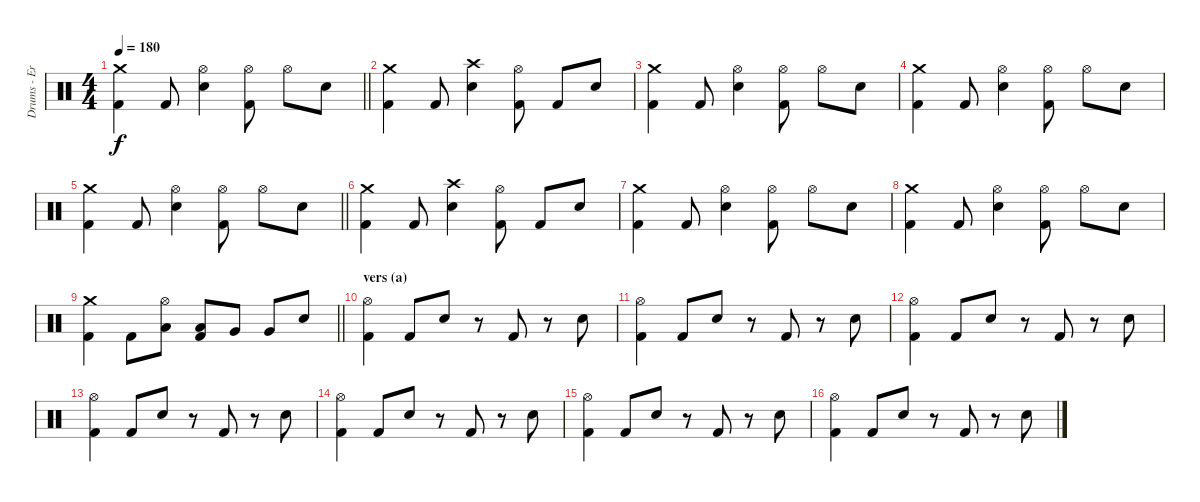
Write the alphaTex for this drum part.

\track ("Drums - Eric Young" "Drums - Er") {instrument percussion}
\staff {score}
\articulation defaults
\ts (4 4)
\tempo 180
\clef neutral
\barLineRight lightlight
\ks c
("Crash medium (hit)" "Kick (hit) 2").4{dy f} "Kick (hit) 2".8 ("Hi-Hat (open)" "Electric Snare (hit)").4 ("Hi-Hat (open)" "Kick (hit) 2").8 "Hi-Hat (open)".8 "Electric Snare (hit)".8 |
("Crash medium (hit)" "Kick (hit) 2").4 "Kick (hit) 2".8 ("Crash high (hit)" "Electric Snare (hit)").4 ("Hi-Hat (open)" "Kick (hit) 2").8 "Kick (hit) 2".8 "Electric Snare (hit)".8 |
("Crash medium (hit)" "Kick (hit) 2").4 "Kick (hit) 2".8 ("Hi-Hat (open)" "Electric Snare (hit)").4 ("Hi-Hat (open)" "Kick (hit) 2").8 "Hi-Hat (open)".8 "Electric Snare (hit)".8 |
("Crash medium (hit)" "Kick (hit) 2").4 "Kick (hit) 2".8 ("Hi-Hat (open)" "Electric Snare (hit)").4 ("Hi-Hat (open)" "Kick (hit) 2").8 "Hi-Hat (open)".8 "Electric Snare (hit)".8 |
\barLineRight lightlight
("Crash medium (hit)" "Kick (hit) 2").4 "Kick (hit) 2".8 ("Hi-Hat (open)" "Electric Snare (hit)").4 ("Hi-Hat (open)" "Kick (hit) 2").8 "Hi-Hat (open)".8 "Electric Snare (hit)".8 |
("Crash medium (hit)" "Kick (hit) 2").4 "Kick (hit) 2".8 ("Crash high (hit)" "Electric Snare (hit)").4 ("Hi-Hat (open)" "Kick (hit) 2").8 "Kick (hit) 2".8 "Electric Snare (hit)".8 |
("Crash medium (hit)" "Kick (hit) 2").4 "Kick (hit) 2".8 ("Hi-Hat (open)" "Electric Snare (hit)").4 ("Hi-Hat (open)" "Kick (hit) 2").8 "Hi-Hat (open)".8 "Electric Snare (hit)".8 |
("Crash medium (hit)" "Kick (hit) 2").4 "Kick (hit) 2".8 ("Hi-Hat (open)" "Electric Snare (hit)").4 ("Hi-Hat (open)" "Kick (hit) 2").8 "Hi-Hat (open)".8 "Electric Snare (hit)".8 |
\barLineRight lightlight
("Crash medium (hit)" "Kick (hit) 2").4 "Kick (hit) 2".8 ("Hi-Hat (open)" "Low Tom (hit)").8 ("Low Tom (hit)" "Kick (hit) 2").8 "Very Low Tom (hit)".8 "Very Low Tom (hit)".8 "Electric Snare (hit)".8 |
\section ("" "vers (a)")
("Hi-Hat (open)" "Kick (hit) 2").4 "Kick (hit) 2".8 "Electric Snare (hit)".8 r.8 "Kick (hit) 2".8 r.8 "Electric Snare (hit)".8 |
("Hi-Hat (open)" "Kick (hit) 2").4 "Kick (hit) 2".8 "Electric Snare (hit)".8 r.8 "Kick (hit) 2".8 r.8 "Electric Snare (hit)".8 |
("Hi-Hat (open)" "Kick (hit) 2").4 "Kick (hit) 2".8 "Electric Snare (hit)".8 r.8 "Kick (hit) 2".8 r.8 "Electric Snare (hit)".8 |
("Hi-Hat (open)" "Kick (hit) 2").4 "Kick (hit) 2".8 "Electric Snare (hit)".8 r.8 "Kick (hit) 2".8 r.8 "Electric Snare (hit)".8 |
("Hi-Hat (open)" "Kick (hit) 2").4 "Kick (hit) 2".8 "Electric Snare (hit)".8 r.8 "Kick (hit) 2".8 r.8 "Electric Snare (hit)".8 |
("Hi-Hat (open)" "Kick (hit) 2").4 "Kick (hit) 2".8 "Electric Snare (hit)".8 r.8 "Kick (hit) 2".8 r.8 "Electric Snare (hit)".8 |
("Hi-Hat (open)" "Kick (hit) 2").4 "Kick (hit) 2".8 "Electric Snare (hit)".8 r.8 "Kick (hit) 2".8 r.8 "Electric Snare (hit)".8
